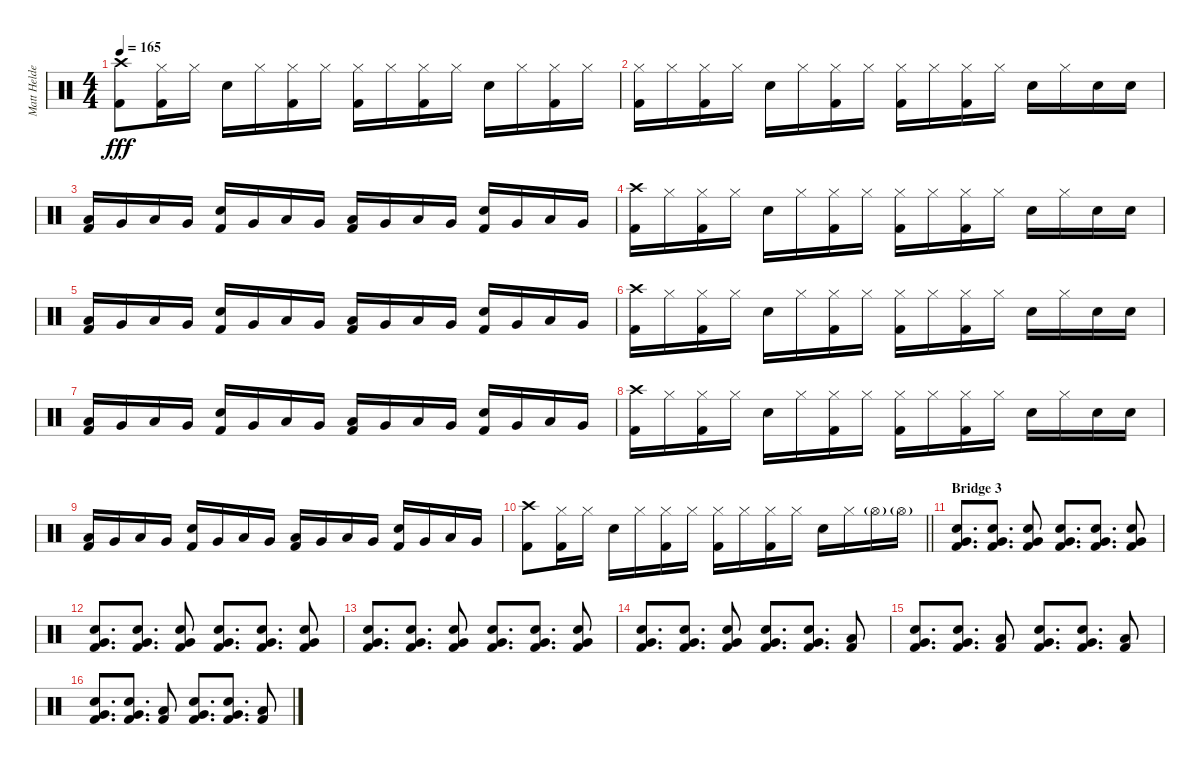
\track ("Matt Helders (Drums)" "Matt Helde") {instrument percussion}
\staff {score}
\articulation defaults
\ts (4 4)
\tempo 165
\clef neutral
\ks c
("Crash high (hit)" "Kick (hit) 2").8{dy fff} ("Hi-Hat (closed)" "Kick (hit) 2").16 "Hi-Hat (closed)".16 "Electric Snare (hit)".16 "Hi-Hat (closed)".16 ("Hi-Hat (closed)" "Kick (hit) 2").16 "Hi-Hat (closed)".16 ("Hi-Hat (closed)" "Kick (hit) 2").16 "Hi-Hat (closed)".16 ("Hi-Hat (closed)" "Kick (hit) 2").16 "Hi-Hat (closed)".16 "Electric Snare (hit)".16 "Hi-Hat (closed)".16 ("Hi-Hat (closed)" "Kick (hit) 2").16 "Hi-Hat (closed)".16 |
("Hi-Hat (closed)" "Kick (hit) 2").16 "Hi-Hat (closed)".16 ("Hi-Hat (closed)" "Kick (hit) 2").16 "Hi-Hat (closed)".16 "Electric Snare (hit)".16 "Hi-Hat (closed)".16 ("Hi-Hat (closed)" "Kick (hit) 2").16 "Hi-Hat (closed)".16 ("Hi-Hat (closed)" "Kick (hit) 2").16 "Hi-Hat (closed)".16 ("Hi-Hat (closed)" "Kick (hit) 2").16 "Hi-Hat (closed)".16 "Electric Snare (hit)".16 "Hi-Hat (closed)".16 "Electric Snare (hit)".16 "Electric Snare (hit)".16 |
("Low Tom (hit)" "Kick (hit) 2").16 "Very Low Tom (hit)".16 "Low Tom (hit)".16 "Very Low Tom (hit)".16 ("Electric Snare (hit)" "Kick (hit) 2").16 "Very Low Tom (hit)".16 "Low Tom (hit)".16 "Very Low Tom (hit)".16 ("Low Tom (hit)" "Kick (hit) 2").16 "Very Low Tom (hit)".16 "Low Tom (hit)".16 "Very Low Tom (hit)".16 ("Electric Snare (hit)" "Kick (hit) 2").16 "Very Low Tom (hit)".16 "Low Tom (hit)".16 "Very Low Tom (hit)".16 |
("Crash high (hit)" "Kick (hit) 2").16 "Hi-Hat (closed)".16 ("Hi-Hat (closed)" "Kick (hit) 2").16 "Hi-Hat (closed)".16 "Electric Snare (hit)".16 "Hi-Hat (closed)".16 ("Hi-Hat (closed)" "Kick (hit) 2").16 "Hi-Hat (closed)".16 ("Hi-Hat (closed)" "Kick (hit) 2").16 "Hi-Hat (closed)".16 ("Hi-Hat (closed)" "Kick (hit) 2").16 "Hi-Hat (closed)".16 "Electric Snare (hit)".16 "Hi-Hat (closed)".16 "Electric Snare (hit)".16 "Electric Snare (hit)".16 |
("Low Tom (hit)" "Kick (hit) 2").16 "Very Low Tom (hit)".16 "Low Tom (hit)".16 "Very Low Tom (hit)".16 ("Electric Snare (hit)" "Kick (hit) 2").16 "Very Low Tom (hit)".16 "Low Tom (hit)".16 "Very Low Tom (hit)".16 ("Low Tom (hit)" "Kick (hit) 2").16 "Very Low Tom (hit)".16 "Low Tom (hit)".16 "Very Low Tom (hit)".16 ("Electric Snare (hit)" "Kick (hit) 2").16 "Very Low Tom (hit)".16 "Low Tom (hit)".16 "Very Low Tom (hit)".16 |
("Crash high (hit)" "Kick (hit) 2").16 "Hi-Hat (closed)".16 ("Hi-Hat (closed)" "Kick (hit) 2").16 "Hi-Hat (closed)".16 "Electric Snare (hit)".16 "Hi-Hat (closed)".16 ("Hi-Hat (closed)" "Kick (hit) 2").16 "Hi-Hat (closed)".16 ("Hi-Hat (closed)" "Kick (hit) 2").16 "Hi-Hat (closed)".16 ("Hi-Hat (closed)" "Kick (hit) 2").16 "Hi-Hat (closed)".16 "Electric Snare (hit)".16 "Hi-Hat (closed)".16 "Electric Snare (hit)".16 "Electric Snare (hit)".16 |
("Low Tom (hit)" "Kick (hit) 2").16 "Very Low Tom (hit)".16 "Low Tom (hit)".16 "Very Low Tom (hit)".16 ("Electric Snare (hit)" "Kick (hit) 2").16 "Very Low Tom (hit)".16 "Low Tom (hit)".16 "Very Low Tom (hit)".16 ("Low Tom (hit)" "Kick (hit) 2").16 "Very Low Tom (hit)".16 "Low Tom (hit)".16 "Very Low Tom (hit)".16 ("Electric Snare (hit)" "Kick (hit) 2").16 "Very Low Tom (hit)".16 "Low Tom (hit)".16 "Very Low Tom (hit)".16 |
("Crash high (hit)" "Kick (hit) 2").16 "Hi-Hat (closed)".16 ("Hi-Hat (closed)" "Kick (hit) 2").16 "Hi-Hat (closed)".16 "Electric Snare (hit)".16 "Hi-Hat (closed)".16 ("Hi-Hat (closed)" "Kick (hit) 2").16 "Hi-Hat (closed)".16 ("Hi-Hat (closed)" "Kick (hit) 2").16 "Hi-Hat (closed)".16 ("Hi-Hat (closed)" "Kick (hit) 2").16 "Hi-Hat (closed)".16 "Electric Snare (hit)".16 "Hi-Hat (closed)".16 "Electric Snare (hit)".16 "Electric Snare (hit)".16 |
("Low Tom (hit)" "Kick (hit) 2").16 "Very Low Tom (hit)".16 "Low Tom (hit)".16 "Very Low Tom (hit)".16 ("Electric Snare (hit)" "Kick (hit) 2").16 "Very Low Tom (hit)".16 "Low Tom (hit)".16 "Very Low Tom (hit)".16 ("Low Tom (hit)" "Kick (hit) 2").16 "Very Low Tom (hit)".16 "Low Tom (hit)".16 "Very Low Tom (hit)".16 ("Electric Snare (hit)" "Kick (hit) 2").16 "Very Low Tom (hit)".16 "Low Tom (hit)".16 "Very Low Tom (hit)".16 |
\barLineRight lightlight
("Crash high (hit)" "Kick (hit) 2").8 ("Hi-Hat (closed)" "Kick (hit) 2").16 "Hi-Hat (closed)".16 "Electric Snare (hit)".16 "Hi-Hat (closed)".16 ("Hi-Hat (closed)" "Kick (hit) 2").16 "Hi-Hat (closed)".16 ("Hi-Hat (closed)" "Kick (hit) 2").16 "Hi-Hat (closed)".16 ("Hi-Hat (closed)" "Kick (hit) 2").16 "Hi-Hat (closed)".16 "Electric Snare (hit)".16 "Hi-Hat (closed)".16 "Hi-Hat (open)"{g}.16 "Hi-Hat (open)"{g}.16 |
\section ("" "Bridge 3")
("Very Low Tom (hit)" "Electric Snare (hit)" "Kick (hit) 2").8{d} ("Very Low Tom (hit)" "Electric Snare (hit)" "Kick (hit) 2").8{d} ("Very Low Tom (hit)" "Electric Snare (hit)" "Kick (hit) 2").8 ("Very Low Tom (hit)" "Electric Snare (hit)" "Kick (hit) 2").8{d} ("Very Low Tom (hit)" "Electric Snare (hit)" "Kick (hit) 2").8{d} ("Very Low Tom (hit)" "Electric Snare (hit)" "Kick (hit) 2").8 |
("Very Low Tom (hit)" "Electric Snare (hit)" "Kick (hit) 2").8{d} ("Very Low Tom (hit)" "Electric Snare (hit)" "Kick (hit) 2").8{d} ("Very Low Tom (hit)" "Electric Snare (hit)" "Kick (hit) 2").8 ("Very Low Tom (hit)" "Electric Snare (hit)" "Kick (hit) 2").8{d} ("Very Low Tom (hit)" "Electric Snare (hit)" "Kick (hit) 2").8{d} ("Very Low Tom (hit)" "Electric Snare (hit)" "Kick (hit) 2").8 |
("Very Low Tom (hit)" "Electric Snare (hit)" "Kick (hit) 2").8{d} ("Very Low Tom (hit)" "Electric Snare (hit)" "Kick (hit) 2").8{d} ("Very Low Tom (hit)" "Electric Snare (hit)" "Kick (hit) 2").8 ("Very Low Tom (hit)" "Electric Snare (hit)" "Kick (hit) 2").8{d} ("Very Low Tom (hit)" "Electric Snare (hit)" "Kick (hit) 2").8{d} ("Very Low Tom (hit)" "Electric Snare (hit)" "Kick (hit) 2").8 |
("Very Low Tom (hit)" "Electric Snare (hit)" "Kick (hit) 2").8{d} ("Very Low Tom (hit)" "Electric Snare (hit)" "Kick (hit) 2").8{d} ("Very Low Tom (hit)" "Electric Snare (hit)" "Kick (hit) 2").8 ("Very Low Tom (hit)" "Electric Snare (hit)" "Kick (hit) 2").8{d} ("Very Low Tom (hit)" "Electric Snare (hit)" "Kick (hit) 2").8{d} ("Low Tom (hit)" "Kick (hit) 2").8 |
("Very Low Tom (hit)" "Electric Snare (hit)" "Kick (hit) 2").8{d} ("Very Low Tom (hit)" "Electric Snare (hit)" "Kick (hit) 2").8{d} ("Low Tom (hit)" "Kick (hit) 2").8 ("Very Low Tom (hit)" "Electric Snare (hit)" "Kick (hit) 2").8{d} ("Very Low Tom (hit)" "Electric Snare (hit)" "Kick (hit) 2").8{d} ("Low Tom (hit)" "Kick (hit) 2").8 |
("Very Low Tom (hit)" "Electric Snare (hit)" "Kick (hit) 2").8{d} ("Very Low Tom (hit)" "Electric Snare (hit)" "Kick (hit) 2").8{d} ("Low Tom (hit)" "Kick (hit) 2").8 ("Very Low Tom (hit)" "Electric Snare (hit)" "Kick (hit) 2").8{d} ("Very Low Tom (hit)" "Electric Snare (hit)" "Kick (hit) 2").8{d} ("Low Tom (hit)" "Kick (hit) 2").8
